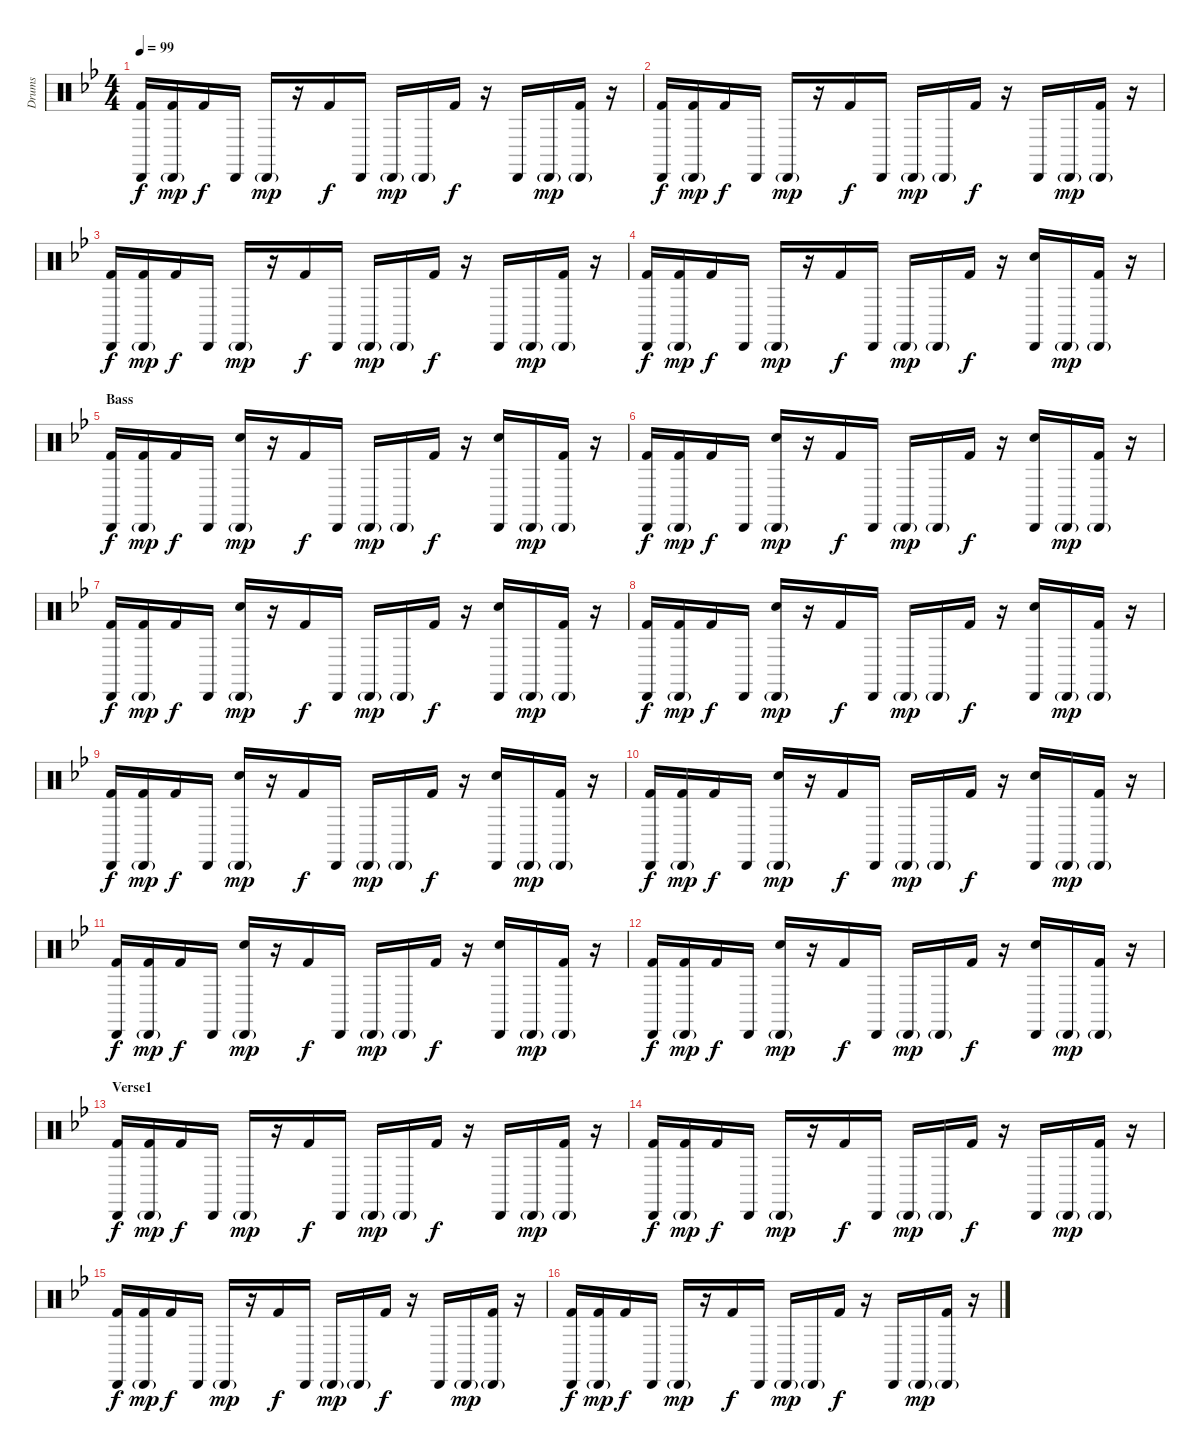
\track ("Drums" "Drums") {instrument percussion}
\staff {score}
\articulation defaults
\ts (4 4)
\tempo 99
\clef neutral
\ks bb
("Cabasa (hit)" "Kick (hit) 2").16{dy f} ("Cabasa (hit)"{g} "Kick (hit) 2").16{dy mp} "Kick (hit) 2".16{dy f} "Cabasa (hit)".16 "Cabasa (hit)"{g}.16{dy mp} r.16 "Kick (hit) 2".16{dy f} "Cabasa (hit)".16 "Cabasa (hit)"{g}.16{dy mp} "Cabasa (hit)"{g}.16 "Kick (hit) 2".16{dy f} r.16 "Cabasa (hit)".16 "Cabasa (hit)"{g}.16{dy mp} ("Cabasa (hit)"{g} "Kick (hit) 2").16 r.16 |
("Cabasa (hit)" "Kick (hit) 2").16{dy f} ("Cabasa (hit)"{g} "Kick (hit) 2").16{dy mp} "Kick (hit) 2".16{dy f} "Cabasa (hit)".16 "Cabasa (hit)"{g}.16{dy mp} r.16 "Kick (hit) 2".16{dy f} "Cabasa (hit)".16 "Cabasa (hit)"{g}.16{dy mp} "Cabasa (hit)"{g}.16 "Kick (hit) 2".16{dy f} r.16 "Cabasa (hit)".16 "Cabasa (hit)"{g}.16{dy mp} ("Cabasa (hit)"{g} "Kick (hit) 2").16 r.16 |
("Cabasa (hit)" "Kick (hit) 2").16{dy f} ("Cabasa (hit)"{g} "Kick (hit) 2").16{dy mp} "Kick (hit) 2".16{dy f} "Cabasa (hit)".16 "Cabasa (hit)"{g}.16{dy mp} r.16 "Kick (hit) 2".16{dy f} "Cabasa (hit)".16 "Cabasa (hit)"{g}.16{dy mp} "Cabasa (hit)"{g}.16 "Kick (hit) 2".16{dy f} r.16 "Cabasa (hit)".16 "Cabasa (hit)"{g}.16{dy mp} ("Cabasa (hit)"{g} "Kick (hit) 2").16 r.16 |
("Cabasa (hit)" "Kick (hit) 2").16{dy f} ("Cabasa (hit)"{g} "Kick (hit) 2").16{dy mp} "Kick (hit) 2".16{dy f} "Cabasa (hit)".16 "Cabasa (hit)"{g}.16{dy mp} r.16 "Kick (hit) 2".16{dy f} "Cabasa (hit)".16 "Cabasa (hit)"{g}.16{dy mp} "Cabasa (hit)"{g}.16 "Kick (hit) 2".16{dy f} r.16 ("Cabasa (hit)" "Snare (hit) 2").16 "Cabasa (hit)"{g}.16{dy mp} ("Cabasa (hit)"{g} "Kick (hit) 2").16 r.16 |
\section ("" "Bass")
("Cabasa (hit)" "Kick (hit) 2").16{dy f} ("Cabasa (hit)"{g} "Kick (hit) 2").16{dy mp} "Kick (hit) 2".16{dy f} "Cabasa (hit)".16 ("Cabasa (hit)"{g} "Snare (hit) 2").16{dy mp} r.16 "Kick (hit) 2".16{dy f} "Cabasa (hit)".16 "Cabasa (hit)"{g}.16{dy mp} "Cabasa (hit)"{g}.16 "Kick (hit) 2".16{dy f} r.16 ("Cabasa (hit)" "Snare (hit) 2").16 "Cabasa (hit)"{g}.16{dy mp} ("Cabasa (hit)"{g} "Kick (hit) 2").16 r.16 |
("Cabasa (hit)" "Kick (hit) 2").16{dy f} ("Cabasa (hit)"{g} "Kick (hit) 2").16{dy mp} "Kick (hit) 2".16{dy f} "Cabasa (hit)".16 ("Cabasa (hit)"{g} "Snare (hit) 2").16{dy mp} r.16 "Kick (hit) 2".16{dy f} "Cabasa (hit)".16 "Cabasa (hit)"{g}.16{dy mp} "Cabasa (hit)"{g}.16 "Kick (hit) 2".16{dy f} r.16 ("Cabasa (hit)" "Snare (hit) 2").16 "Cabasa (hit)"{g}.16{dy mp} ("Cabasa (hit)"{g} "Kick (hit) 2").16 r.16 |
("Cabasa (hit)" "Kick (hit) 2").16{dy f} ("Cabasa (hit)"{g} "Kick (hit) 2").16{dy mp} "Kick (hit) 2".16{dy f} "Cabasa (hit)".16 ("Cabasa (hit)"{g} "Snare (hit) 2").16{dy mp} r.16 "Kick (hit) 2".16{dy f} "Cabasa (hit)".16 "Cabasa (hit)"{g}.16{dy mp} "Cabasa (hit)"{g}.16 "Kick (hit) 2".16{dy f} r.16 ("Cabasa (hit)" "Snare (hit) 2").16 "Cabasa (hit)"{g}.16{dy mp} ("Cabasa (hit)"{g} "Kick (hit) 2").16 r.16 |
("Cabasa (hit)" "Kick (hit) 2").16{dy f} ("Cabasa (hit)"{g} "Kick (hit) 2").16{dy mp} "Kick (hit) 2".16{dy f} "Cabasa (hit)".16 ("Cabasa (hit)"{g} "Snare (hit) 2").16{dy mp} r.16 "Kick (hit) 2".16{dy f} "Cabasa (hit)".16 "Cabasa (hit)"{g}.16{dy mp} "Cabasa (hit)"{g}.16 "Kick (hit) 2".16{dy f} r.16 ("Cabasa (hit)" "Snare (hit) 2").16 "Cabasa (hit)"{g}.16{dy mp} ("Cabasa (hit)"{g} "Kick (hit) 2").16 r.16 |
("Cabasa (hit)" "Kick (hit) 2").16{dy f} ("Cabasa (hit)"{g} "Kick (hit) 2").16{dy mp} "Kick (hit) 2".16{dy f} "Cabasa (hit)".16 ("Cabasa (hit)"{g} "Snare (hit) 2").16{dy mp} r.16 "Kick (hit) 2".16{dy f} "Cabasa (hit)".16 "Cabasa (hit)"{g}.16{dy mp} "Cabasa (hit)"{g}.16 "Kick (hit) 2".16{dy f} r.16 ("Cabasa (hit)" "Snare (hit) 2").16 "Cabasa (hit)"{g}.16{dy mp} ("Cabasa (hit)"{g} "Kick (hit) 2").16 r.16 |
("Cabasa (hit)" "Kick (hit) 2").16{dy f} ("Cabasa (hit)"{g} "Kick (hit) 2").16{dy mp} "Kick (hit) 2".16{dy f} "Cabasa (hit)".16 ("Cabasa (hit)"{g} "Snare (hit) 2").16{dy mp} r.16 "Kick (hit) 2".16{dy f} "Cabasa (hit)".16 "Cabasa (hit)"{g}.16{dy mp} "Cabasa (hit)"{g}.16 "Kick (hit) 2".16{dy f} r.16 ("Cabasa (hit)" "Snare (hit) 2").16 "Cabasa (hit)"{g}.16{dy mp} ("Cabasa (hit)"{g} "Kick (hit) 2").16 r.16 |
("Cabasa (hit)" "Kick (hit) 2").16{dy f} ("Cabasa (hit)"{g} "Kick (hit) 2").16{dy mp} "Kick (hit) 2".16{dy f} "Cabasa (hit)".16 ("Cabasa (hit)"{g} "Snare (hit) 2").16{dy mp} r.16 "Kick (hit) 2".16{dy f} "Cabasa (hit)".16 "Cabasa (hit)"{g}.16{dy mp} "Cabasa (hit)"{g}.16 "Kick (hit) 2".16{dy f} r.16 ("Cabasa (hit)" "Snare (hit) 2").16 "Cabasa (hit)"{g}.16{dy mp} ("Cabasa (hit)"{g} "Kick (hit) 2").16 r.16 |
("Cabasa (hit)" "Kick (hit) 2").16{dy f} ("Cabasa (hit)"{g} "Kick (hit) 2").16{dy mp} "Kick (hit) 2".16{dy f} "Cabasa (hit)".16 ("Cabasa (hit)"{g} "Snare (hit) 2").16{dy mp} r.16 "Kick (hit) 2".16{dy f} "Cabasa (hit)".16 "Cabasa (hit)"{g}.16{dy mp} "Cabasa (hit)"{g}.16 "Kick (hit) 2".16{dy f} r.16 ("Cabasa (hit)" "Snare (hit) 2").16 "Cabasa (hit)"{g}.16{dy mp} ("Cabasa (hit)"{g} "Kick (hit) 2").16 r.16 |
\section ("" "Verse1")
("Cabasa (hit)" "Kick (hit) 2").16{dy f} ("Cabasa (hit)"{g} "Kick (hit) 2").16{dy mp} "Kick (hit) 2".16{dy f} "Cabasa (hit)".16 "Cabasa (hit)"{g}.16{dy mp} r.16 "Kick (hit) 2".16{dy f} "Cabasa (hit)".16 "Cabasa (hit)"{g}.16{dy mp} "Cabasa (hit)"{g}.16 "Kick (hit) 2".16{dy f} r.16 "Cabasa (hit)".16 "Cabasa (hit)"{g}.16{dy mp} ("Cabasa (hit)"{g} "Kick (hit) 2").16 r.16 |
("Cabasa (hit)" "Kick (hit) 2").16{dy f} ("Cabasa (hit)"{g} "Kick (hit) 2").16{dy mp} "Kick (hit) 2".16{dy f} "Cabasa (hit)".16 "Cabasa (hit)"{g}.16{dy mp} r.16 "Kick (hit) 2".16{dy f} "Cabasa (hit)".16 "Cabasa (hit)"{g}.16{dy mp} "Cabasa (hit)"{g}.16 "Kick (hit) 2".16{dy f} r.16 "Cabasa (hit)".16 "Cabasa (hit)"{g}.16{dy mp} ("Cabasa (hit)"{g} "Kick (hit) 2").16 r.16 |
("Cabasa (hit)" "Kick (hit) 2").16{dy f} ("Cabasa (hit)"{g} "Kick (hit) 2").16{dy mp} "Kick (hit) 2".16{dy f} "Cabasa (hit)".16 "Cabasa (hit)"{g}.16{dy mp} r.16 "Kick (hit) 2".16{dy f} "Cabasa (hit)".16 "Cabasa (hit)"{g}.16{dy mp} "Cabasa (hit)"{g}.16 "Kick (hit) 2".16{dy f} r.16 "Cabasa (hit)".16 "Cabasa (hit)"{g}.16{dy mp} ("Cabasa (hit)"{g} "Kick (hit) 2").16 r.16 |
("Cabasa (hit)" "Kick (hit) 2").16{dy f} ("Cabasa (hit)"{g} "Kick (hit) 2").16{dy mp} "Kick (hit) 2".16{dy f} "Cabasa (hit)".16 "Cabasa (hit)"{g}.16{dy mp} r.16 "Kick (hit) 2".16{dy f} "Cabasa (hit)".16 "Cabasa (hit)"{g}.16{dy mp} "Cabasa (hit)"{g}.16 "Kick (hit) 2".16{dy f} r.16 "Cabasa (hit)".16 "Cabasa (hit)"{g}.16{dy mp} ("Cabasa (hit)"{g} "Kick (hit) 2").16 r.16
